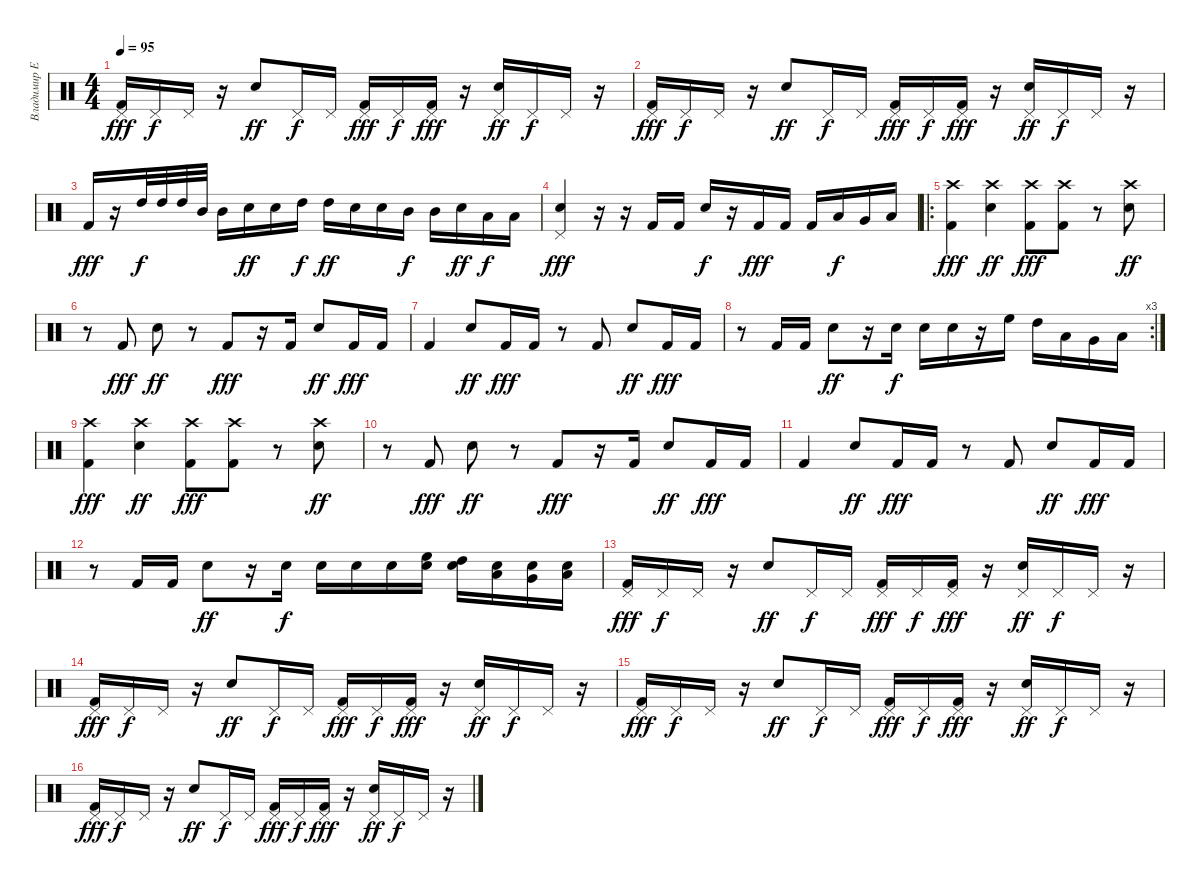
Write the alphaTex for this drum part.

\track ("Владимир Ермаков" "Владимир Е") {instrument percussion}
\staff {score}
\articulation defaults
\ts (4 4)
\tempo 95
\clef neutral
\ks c
("Kick (hit) 2" "Pedal Hi-Hat (hit)").16{dy fff} "Pedal Hi-Hat (hit)".16{dy f} "Pedal Hi-Hat (hit)".16 r.16 "Electric Snare (hit)".8{dy ff} "Pedal Hi-Hat (hit)".16{dy f} "Pedal Hi-Hat (hit)".16 ("Kick (hit) 2" "Pedal Hi-Hat (hit)").16{dy fff} "Pedal Hi-Hat (hit)".16{dy f} ("Kick (hit) 2" "Pedal Hi-Hat (hit)").16{dy fff} r.16 ("Electric Snare (hit)" "Pedal Hi-Hat (hit)").16{dy ff} "Pedal Hi-Hat (hit)".16{dy f} "Pedal Hi-Hat (hit)".16 r.16 |
("Kick (hit) 2" "Pedal Hi-Hat (hit)").16{dy fff} "Pedal Hi-Hat (hit)".16{dy f} "Pedal Hi-Hat (hit)".16 r.16 "Electric Snare (hit)".8{dy ff} "Pedal Hi-Hat (hit)".16{dy f} "Pedal Hi-Hat (hit)".16 ("Kick (hit) 2" "Pedal Hi-Hat (hit)").16{dy fff} "Pedal Hi-Hat (hit)".16{dy f} ("Kick (hit) 2" "Pedal Hi-Hat (hit)").16{dy fff} r.16 ("Electric Snare (hit)" "Pedal Hi-Hat (hit)").16{dy ff} "Pedal Hi-Hat (hit)".16{dy f} "Pedal Hi-Hat (hit)".16 r.16 |
"Kick (hit) 2".16{dy fff} r.16 "High Tom (hit)".32{dy f} "High Tom (hit)".32 "High Tom (hit)".32 "Mid Tom (hit)".32 "Mid Tom (hit)".16 "Electric Snare (hit)".16{dy ff} "Electric Snare (hit)".16 "High Tom (hit)".16{dy f} "High Tom (hit)".16{dy ff} "Electric Snare (hit)".16 "Electric Snare (hit)".16 "Mid Tom (hit)".16{dy f} "Mid Tom (hit)".16 "Electric Snare (hit)".16{dy ff} "Low Tom (hit)".16{dy f} "Low Tom (hit)".16 |
("Electric Snare (hit)" "Pedal Hi-Hat (hit)").4{dy fff} r.16 r.16 "Kick (hit) 2".16 "Kick (hit) 2".16 "Electric Snare (hit)".16{dy f} r.16 "Kick (hit) 2".16{dy fff} "Kick (hit) 2".16 "Kick (hit) 2".16 "Low Tom (hit)".16{dy f} "Very Low Tom (hit)".16 "Low Floor Tom (hit)".16 |
\ro
("Kick (hit) 2" "Crash high (hit)").4{dy fff} ("Electric Snare (hit)" "Crash high (hit)").4{dy ff} ("Kick (hit) 2" "Crash high (hit)").8{dy fff} ("Kick (hit) 2" "Crash high (hit)").8 r.8 ("Electric Snare (hit)" "Crash high (hit)").8{dy ff} |
r.8 "Kick (hit) 2".8{dy fff} "Electric Snare (hit)".8{dy ff} r.8 "Kick (hit) 2".8{dy fff} r.16 "Kick (hit) 2".16 "Electric Snare (hit)".8{dy ff} "Kick (hit) 2".16{dy fff} "Kick (hit) 2".16 |
"Kick (hit) 2".4 "Electric Snare (hit)".8{dy ff} "Kick (hit) 2".16{dy fff} "Kick (hit) 2".16 r.8 "Kick (hit) 2".8 "Electric Snare (hit)".8{dy ff} "Kick (hit) 2".16{dy fff} "Kick (hit) 2".16 |
\rc 3
r.8 "Kick (hit) 2".16 "Kick (hit) 2".16 "Electric Snare (hit)".8{dy ff} r.16 "Electric Snare (hit)".16{dy f} "Electric Snare (hit)".16 "Electric Snare (hit)".16 r.16 "High Floor Tom (hit)".16 "High Tom (hit)".16 "Low Tom (hit)".16 "Very Low Tom (hit)".16 "Low Floor Tom (hit)".16 |
("Kick (hit) 2" "Crash high (hit)").4{dy fff} ("Electric Snare (hit)" "Crash high (hit)").4{dy ff} ("Kick (hit) 2" "Crash high (hit)").8{dy fff} ("Kick (hit) 2" "Crash high (hit)").8 r.8 ("Electric Snare (hit)" "Crash high (hit)").8{dy ff} |
r.8 "Kick (hit) 2".8{dy fff} "Electric Snare (hit)".8{dy ff} r.8 "Kick (hit) 2".8{dy fff} r.16 "Kick (hit) 2".16 "Electric Snare (hit)".8{dy ff} "Kick (hit) 2".16{dy fff} "Kick (hit) 2".16 |
"Kick (hit) 2".4 "Electric Snare (hit)".8{dy ff} "Kick (hit) 2".16{dy fff} "Kick (hit) 2".16 r.8 "Kick (hit) 2".8 "Electric Snare (hit)".8{dy ff} "Kick (hit) 2".16{dy fff} "Kick (hit) 2".16 |
r.8 "Kick (hit) 2".16 "Kick (hit) 2".16 "Electric Snare (hit)".8{dy ff} r.16 "Electric Snare (hit)".16{dy f} "Electric Snare (hit)".16 "Electric Snare (hit)".16 "Electric Snare (hit)".16 ("High Floor Tom (hit)" "Electric Snare (hit)").16 ("High Tom (hit)" "Electric Snare (hit)").16 ("Low Tom (hit)" "Electric Snare (hit)").16 ("Very Low Tom (hit)" "Electric Snare (hit)").16 ("Low Floor Tom (hit)" "Electric Snare (hit)").16 |
("Kick (hit) 2" "Pedal Hi-Hat (hit)").16{dy fff} "Pedal Hi-Hat (hit)".16{dy f} "Pedal Hi-Hat (hit)".16 r.16 "Electric Snare (hit)".8{dy ff} "Pedal Hi-Hat (hit)".16{dy f} "Pedal Hi-Hat (hit)".16 ("Kick (hit) 2" "Pedal Hi-Hat (hit)").16{dy fff} "Pedal Hi-Hat (hit)".16{dy f} ("Kick (hit) 2" "Pedal Hi-Hat (hit)").16{dy fff} r.16 ("Electric Snare (hit)" "Pedal Hi-Hat (hit)").16{dy ff} "Pedal Hi-Hat (hit)".16{dy f} "Pedal Hi-Hat (hit)".16 r.16 |
("Kick (hit) 2" "Pedal Hi-Hat (hit)").16{dy fff} "Pedal Hi-Hat (hit)".16{dy f} "Pedal Hi-Hat (hit)".16 r.16 "Electric Snare (hit)".8{dy ff} "Pedal Hi-Hat (hit)".16{dy f} "Pedal Hi-Hat (hit)".16 ("Kick (hit) 2" "Pedal Hi-Hat (hit)").16{dy fff} "Pedal Hi-Hat (hit)".16{dy f} ("Kick (hit) 2" "Pedal Hi-Hat (hit)").16{dy fff} r.16 ("Electric Snare (hit)" "Pedal Hi-Hat (hit)").16{dy ff} "Pedal Hi-Hat (hit)".16{dy f} "Pedal Hi-Hat (hit)".16 r.16 |
("Kick (hit) 2" "Pedal Hi-Hat (hit)").16{dy fff} "Pedal Hi-Hat (hit)".16{dy f} "Pedal Hi-Hat (hit)".16 r.16 "Electric Snare (hit)".8{dy ff} "Pedal Hi-Hat (hit)".16{dy f} "Pedal Hi-Hat (hit)".16 ("Kick (hit) 2" "Pedal Hi-Hat (hit)").16{dy fff} "Pedal Hi-Hat (hit)".16{dy f} ("Kick (hit) 2" "Pedal Hi-Hat (hit)").16{dy fff} r.16 ("Electric Snare (hit)" "Pedal Hi-Hat (hit)").16{dy ff} "Pedal Hi-Hat (hit)".16{dy f} "Pedal Hi-Hat (hit)".16 r.16 |
("Kick (hit) 2" "Pedal Hi-Hat (hit)").16{dy fff} "Pedal Hi-Hat (hit)".16{dy f} "Pedal Hi-Hat (hit)".16 r.16 "Electric Snare (hit)".8{dy ff} "Pedal Hi-Hat (hit)".16{dy f} "Pedal Hi-Hat (hit)".16 ("Kick (hit) 2" "Pedal Hi-Hat (hit)").16{dy fff} "Pedal Hi-Hat (hit)".16{dy f} ("Kick (hit) 2" "Pedal Hi-Hat (hit)").16{dy fff} r.16 ("Electric Snare (hit)" "Pedal Hi-Hat (hit)").16{dy ff} "Pedal Hi-Hat (hit)".16{dy f} "Pedal Hi-Hat (hit)".16 r.16
